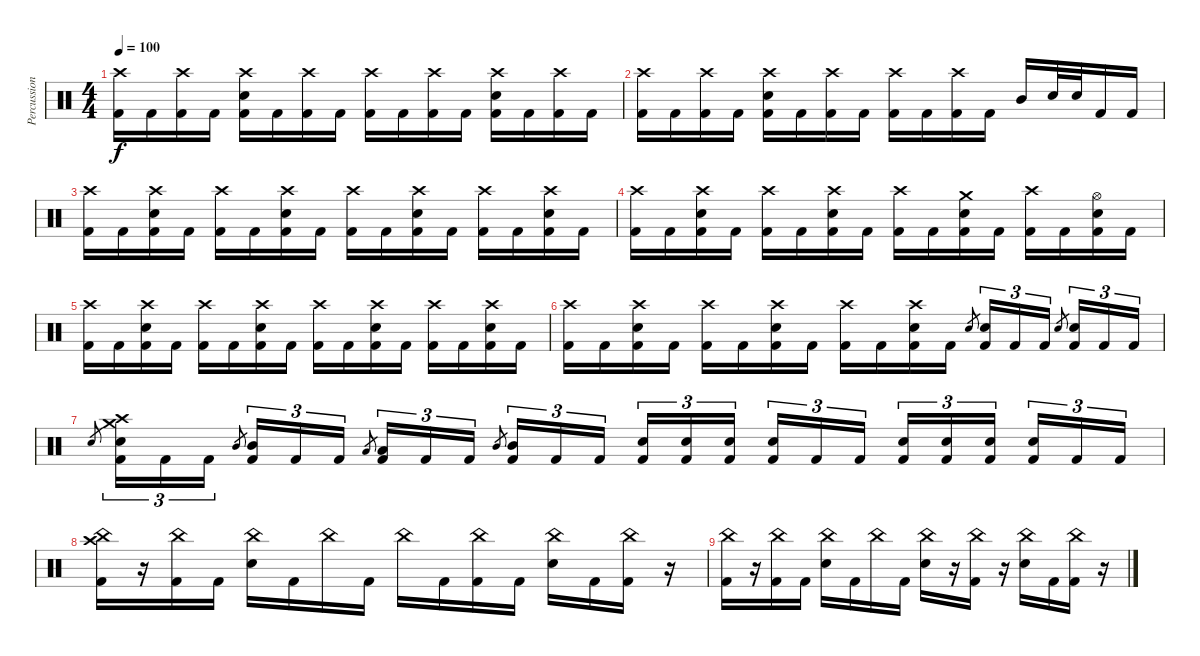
\track ("Percussion" "Percussion") {instrument percussion}
\staff {score}
\articulation defaults
\ts (4 4)
\tempo 100
\clef neutral
\ks c
("Crash high (hit)" "Kick (hit) 2").16{dy f} "Kick (hit) 2".16 ("Crash high (hit)" "Kick (hit) 2").16 "Kick (hit) 2".16 ("Crash high (hit)" "Electric Snare (hit)" "Kick (hit) 2").16 "Kick (hit) 2".16 ("Crash high (hit)" "Kick (hit) 2").16 "Kick (hit) 2".16 ("Crash high (hit)" "Kick (hit) 2").16 "Kick (hit) 2".16 ("Crash high (hit)" "Kick (hit) 2").16 "Kick (hit) 2".16 ("Crash high (hit)" "Electric Snare (hit)" "Kick (hit) 2").16 "Kick (hit) 2".16 ("Crash high (hit)" "Kick (hit) 2").16 "Kick (hit) 2".16 |
("Crash high (hit)" "Kick (hit) 2").16 "Kick (hit) 2".16 ("Crash high (hit)" "Kick (hit) 2").16 "Kick (hit) 2".16 ("Crash high (hit)" "Electric Snare (hit)" "Kick (hit) 2").16 "Kick (hit) 2".16 ("Crash high (hit)" "Kick (hit) 2").16 "Kick (hit) 2".16 ("Crash high (hit)" "Kick (hit) 2").16 "Kick (hit) 2".16 ("Crash high (hit)" "Kick (hit) 2").16 "Kick (hit) 2".16 "Mid Tom (hit)".16 "Electric Snare (hit)".32 "Electric Snare (hit)".32 "Kick (hit) 2".16 "Kick (hit) 2".16 |
("Crash high (hit)" "Kick (hit) 2").16 "Kick (hit) 2".16 ("Crash high (hit)" "Electric Snare (hit)" "Kick (hit) 2").16 "Kick (hit) 2".16 ("Crash high (hit)" "Kick (hit) 2").16 "Kick (hit) 2".16 ("Crash high (hit)" "Electric Snare (hit)" "Kick (hit) 2").16 "Kick (hit) 2".16 ("Crash high (hit)" "Kick (hit) 2").16 "Kick (hit) 2".16 ("Crash high (hit)" "Electric Snare (hit)" "Kick (hit) 2").16 "Kick (hit) 2".16 ("Crash high (hit)" "Kick (hit) 2").16 "Kick (hit) 2".16 ("Crash high (hit)" "Electric Snare (hit)" "Kick (hit) 2").16 "Kick (hit) 2".16 |
("Crash high (hit)" "Kick (hit) 2").16 "Kick (hit) 2".16 ("Crash high (hit)" "Electric Snare (hit)" "Kick (hit) 2").16 "Kick (hit) 2".16 ("Crash high (hit)" "Kick (hit) 2").16 "Kick (hit) 2".16 ("Crash high (hit)" "Electric Snare (hit)" "Kick (hit) 2").16 "Kick (hit) 2".16 ("Crash high (hit)" "Kick (hit) 2").16 "Kick (hit) 2".16 ("Crash medium (hit)" "Electric Snare (hit)" "Kick (hit) 2").16 "Kick (hit) 2".16 ("Crash high (hit)" "Kick (hit) 2").16 "Kick (hit) 2".16 ("Hi-Hat (open)" "Electric Snare (hit)" "Kick (hit) 2").16 "Kick (hit) 2".16 |
("Crash high (hit)" "Kick (hit) 2").16 "Kick (hit) 2".16 ("Crash high (hit)" "Electric Snare (hit)" "Kick (hit) 2").16 "Kick (hit) 2".16 ("Crash high (hit)" "Kick (hit) 2").16 "Kick (hit) 2".16 ("Crash high (hit)" "Electric Snare (hit)" "Kick (hit) 2").16 "Kick (hit) 2".16 ("Crash high (hit)" "Kick (hit) 2").16 "Kick (hit) 2".16 ("Crash high (hit)" "Electric Snare (hit)" "Kick (hit) 2").16 "Kick (hit) 2".16 ("Crash high (hit)" "Kick (hit) 2").16 "Kick (hit) 2".16 ("Crash high (hit)" "Electric Snare (hit)" "Kick (hit) 2").16 "Kick (hit) 2".16 |
("Crash high (hit)" "Kick (hit) 2").16 "Kick (hit) 2".16 ("Crash high (hit)" "Electric Snare (hit)" "Kick (hit) 2").16 "Kick (hit) 2".16 ("Crash high (hit)" "Kick (hit) 2").16 "Kick (hit) 2".16 ("Crash high (hit)" "Electric Snare (hit)" "Kick (hit) 2").16 "Kick (hit) 2".16 ("Crash high (hit)" "Kick (hit) 2").16 "Kick (hit) 2".16 ("Crash high (hit)" "Electric Snare (hit)" "Kick (hit) 2").16 "Kick (hit) 2".16 "Electric Snare (hit)".8{gr} ("Electric Snare (hit)" "Kick (hit) 2").16{tu (3 2)} "Kick (hit) 2".16{tu (3 2)} "Kick (hit) 2".16{tu (3 2)} "Electric Snare (hit)".8{gr beam splitsecondary} ("Electric Snare (hit)" "Kick (hit) 2").16{tu (3 2)} "Kick (hit) 2".16{tu (3 2)} "Kick (hit) 2".16{tu (3 2)} |
"Electric Snare (hit)".8{gr} ("Crash medium (hit)" "Crash high (hit)" "Electric Snare (hit)" "Kick (hit) 2").16{tu (3 2)} "Kick (hit) 2".16{tu (3 2)} "Kick (hit) 2".16{tu (3 2)} "Mid Tom (hit)".8{gr beam splitsecondary} ("Mid Tom (hit)" "Kick (hit) 2").16{tu (3 2)} "Kick (hit) 2".16{tu (3 2)} "Kick (hit) 2".16{tu (3 2)} "Low Tom (hit)".8{gr} ("Low Tom (hit)" "Kick (hit) 2").16{tu (3 2)} "Kick (hit) 2".16{tu (3 2)} "Kick (hit) 2".16{tu (3 2)} "Mid Tom (hit)".8{gr beam splitsecondary} ("Mid Tom (hit)" "Kick (hit) 2").16{tu (3 2)} "Kick (hit) 2".16{tu (3 2)} "Kick (hit) 2".16{tu (3 2)} ("Electric Snare (hit)" "Kick (hit) 2").16{tu (3 2)} ("Electric Snare (hit)" "Kick (hit) 2").16{tu (3 2)} ("Electric Snare (hit)" "Kick (hit) 2").16{tu (3 2) beam splitsecondary} ("Electric Snare (hit)" "Kick (hit) 2").16{tu (3 2)} "Kick (hit) 2".16{tu (3 2)} "Kick (hit) 2".16{tu (3 2)} ("Electric Snare (hit)" "Kick (hit) 2").16{tu (3 2)} ("Electric Snare (hit)" "Kick (hit) 2").16{tu (3 2)} ("Electric Snare (hit)" "Kick (hit) 2").16{tu (3 2) beam splitsecondary} ("Electric Snare (hit)" "Kick (hit) 2").16{tu (3 2)} "Kick (hit) 2".16{tu (3 2)} "Kick (hit) 2".16{tu (3 2)} |
("China (hit)" "Crash high (hit)" "Kick (hit) 2").16 r.16 ("China (hit)" "Kick (hit) 2").16 "Kick (hit) 2".16 ("China (hit)" "Electric Snare (hit)").16 "Kick (hit) 2".16 "China (hit)".16 "Kick (hit) 2".16 "China (hit)".16 "Kick (hit) 2".16 ("China (hit)" "Kick (hit) 2").16 "Kick (hit) 2".16 ("China (hit)" "Electric Snare (hit)").16 "Kick (hit) 2".16 ("China (hit)" "Kick (hit) 2").16 r.16 |
("China (hit)" "Kick (hit) 2").16 r.16 ("China (hit)" "Kick (hit) 2").16 "Kick (hit) 2".16 ("China (hit)" "Electric Snare (hit)").16 "Kick (hit) 2".16 "China (hit)".16 "Kick (hit) 2".16 ("China (hit)" "Electric Snare (hit)").16 r.16 ("China (hit)" "Kick (hit) 2").16 r.16 ("China (hit)" "Electric Snare (hit)").16 "Kick (hit) 2".16 ("China (hit)" "Kick (hit) 2").16 r.16
